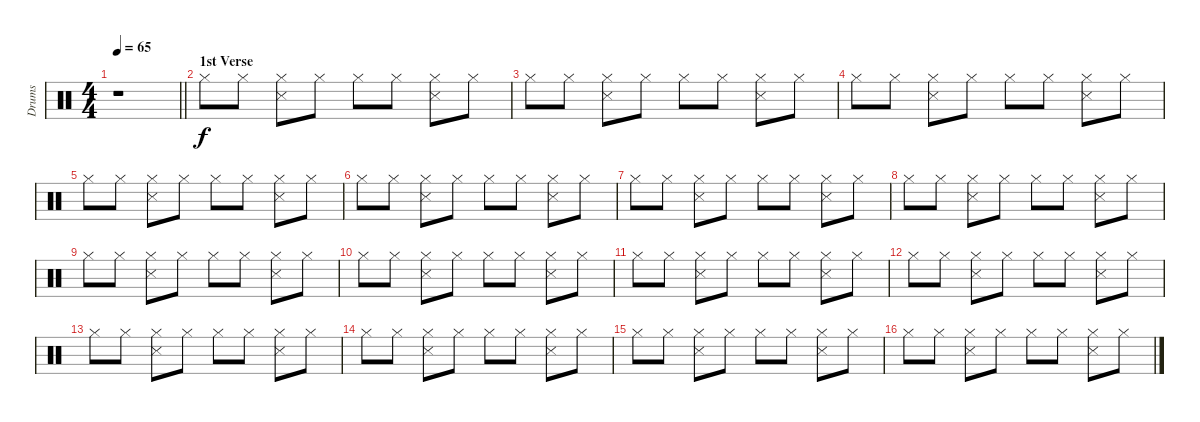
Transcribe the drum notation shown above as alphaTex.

\track ("Drums" "Drums") {instrument percussion}
\staff {score}
\articulation defaults
\ts (4 4)
\tempo 65
\clef neutral
\barLineRight lightlight
\ks c
r.1{dy f} |
\section ("" "1st Verse")
"Hi-Hat (closed)".8 "Hi-Hat (closed)".8 ("Hi-Hat (closed)" "Snare (side stick) 3").8 "Hi-Hat (closed)".8 "Hi-Hat (closed)".8 "Hi-Hat (closed)".8 ("Hi-Hat (closed)" "Snare (side stick) 3").8 "Hi-Hat (closed)".8 |
"Hi-Hat (closed)".8 "Hi-Hat (closed)".8 ("Hi-Hat (closed)" "Snare (side stick) 3").8 "Hi-Hat (closed)".8 "Hi-Hat (closed)".8 "Hi-Hat (closed)".8 ("Hi-Hat (closed)" "Snare (side stick) 3").8 "Hi-Hat (closed)".8 |
"Hi-Hat (closed)".8 "Hi-Hat (closed)".8 ("Hi-Hat (closed)" "Snare (side stick) 3").8 "Hi-Hat (closed)".8 "Hi-Hat (closed)".8 "Hi-Hat (closed)".8 ("Hi-Hat (closed)" "Snare (side stick) 3").8 "Hi-Hat (closed)".8 |
"Hi-Hat (closed)".8 "Hi-Hat (closed)".8 ("Hi-Hat (closed)" "Snare (side stick) 3").8 "Hi-Hat (closed)".8 "Hi-Hat (closed)".8 "Hi-Hat (closed)".8 ("Hi-Hat (closed)" "Snare (side stick) 3").8 "Hi-Hat (closed)".8 |
"Hi-Hat (closed)".8 "Hi-Hat (closed)".8 ("Hi-Hat (closed)" "Snare (side stick) 3").8 "Hi-Hat (closed)".8 "Hi-Hat (closed)".8 "Hi-Hat (closed)".8 ("Hi-Hat (closed)" "Snare (side stick) 3").8 "Hi-Hat (closed)".8 |
"Hi-Hat (closed)".8 "Hi-Hat (closed)".8 ("Hi-Hat (closed)" "Snare (side stick) 3").8 "Hi-Hat (closed)".8 "Hi-Hat (closed)".8 "Hi-Hat (closed)".8 ("Hi-Hat (closed)" "Snare (side stick) 3").8 "Hi-Hat (closed)".8 |
"Hi-Hat (closed)".8 "Hi-Hat (closed)".8 ("Hi-Hat (closed)" "Snare (side stick) 3").8 "Hi-Hat (closed)".8 "Hi-Hat (closed)".8 "Hi-Hat (closed)".8 ("Hi-Hat (closed)" "Snare (side stick) 3").8 "Hi-Hat (closed)".8 |
"Hi-Hat (closed)".8 "Hi-Hat (closed)".8 ("Hi-Hat (closed)" "Snare (side stick) 3").8 "Hi-Hat (closed)".8 "Hi-Hat (closed)".8 "Hi-Hat (closed)".8 ("Hi-Hat (closed)" "Snare (side stick) 3").8 "Hi-Hat (closed)".8 |
"Hi-Hat (closed)".8 "Hi-Hat (closed)".8 ("Hi-Hat (closed)" "Snare (side stick) 3").8 "Hi-Hat (closed)".8 "Hi-Hat (closed)".8 "Hi-Hat (closed)".8 ("Hi-Hat (closed)" "Snare (side stick) 3").8 "Hi-Hat (closed)".8 |
"Hi-Hat (closed)".8 "Hi-Hat (closed)".8 ("Hi-Hat (closed)" "Snare (side stick) 3").8 "Hi-Hat (closed)".8 "Hi-Hat (closed)".8 "Hi-Hat (closed)".8 ("Hi-Hat (closed)" "Snare (side stick) 3").8 "Hi-Hat (closed)".8 |
"Hi-Hat (closed)".8 "Hi-Hat (closed)".8 ("Hi-Hat (closed)" "Snare (side stick) 3").8 "Hi-Hat (closed)".8 "Hi-Hat (closed)".8 "Hi-Hat (closed)".8 ("Hi-Hat (closed)" "Snare (side stick) 3").8 "Hi-Hat (closed)".8 |
"Hi-Hat (closed)".8 "Hi-Hat (closed)".8 ("Hi-Hat (closed)" "Snare (side stick) 3").8 "Hi-Hat (closed)".8 "Hi-Hat (closed)".8 "Hi-Hat (closed)".8 ("Hi-Hat (closed)" "Snare (side stick) 3").8 "Hi-Hat (closed)".8 |
"Hi-Hat (closed)".8 "Hi-Hat (closed)".8 ("Hi-Hat (closed)" "Snare (side stick) 3").8 "Hi-Hat (closed)".8 "Hi-Hat (closed)".8 "Hi-Hat (closed)".8 ("Hi-Hat (closed)" "Snare (side stick) 3").8 "Hi-Hat (closed)".8 |
"Hi-Hat (closed)".8 "Hi-Hat (closed)".8 ("Hi-Hat (closed)" "Snare (side stick) 3").8 "Hi-Hat (closed)".8 "Hi-Hat (closed)".8 "Hi-Hat (closed)".8 ("Hi-Hat (closed)" "Snare (side stick) 3").8 "Hi-Hat (closed)".8 |
"Hi-Hat (closed)".8 "Hi-Hat (closed)".8 ("Hi-Hat (closed)" "Snare (side stick) 3").8 "Hi-Hat (closed)".8 "Hi-Hat (closed)".8 "Hi-Hat (closed)".8 ("Hi-Hat (closed)" "Snare (side stick) 3").8 "Hi-Hat (closed)".8
